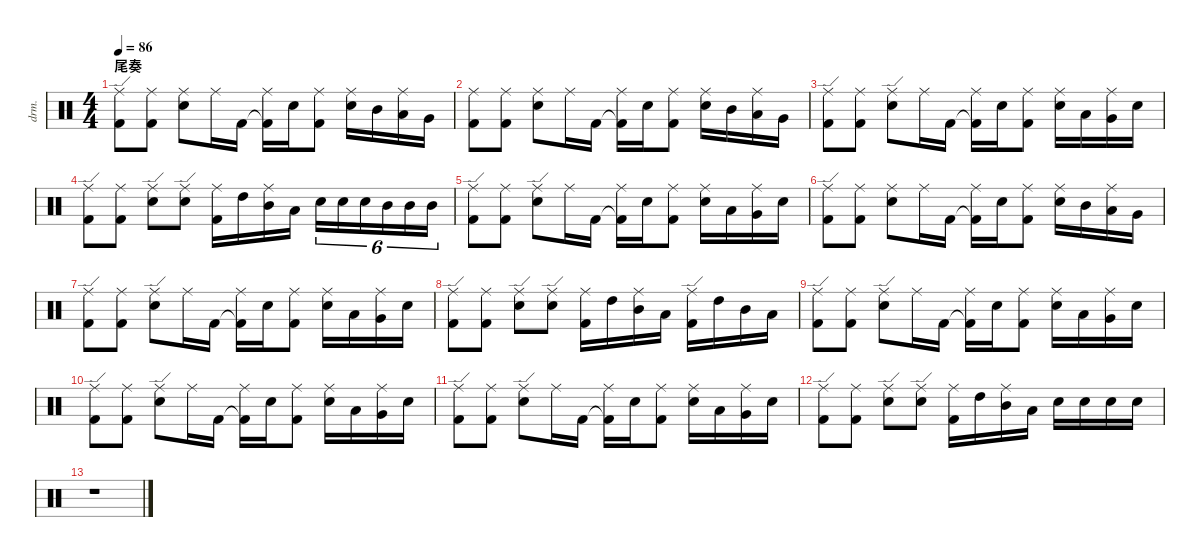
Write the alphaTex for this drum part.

\defaultSystemsLayout 4
\hideDynamics
\bracketExtendMode nobrackets
\track ("Drums" "drm.") {solo instrument percussion}
\staff {score}
\articulation defaults
\ts (4 4)
\section ("" "尾奏")
\tempo 86
\clef neutral
\ks c
("Ride (edge)" "Kick (hit) 2").8{dy ff beam Down} ("Kick (hit) 2" "Ride (middle)").8{dy mf beam Down} ("Snare (hit) 2" "Ride (middle)").8{beam Down} "Ride (middle)".16{beam Down} "Kick (hit) 2".16{beam Down} ("Kick (hit) 2"{t} "Ride (middle)").16{beam Down} "Snare (hit) 2".16{beam Down} ("Kick (hit) 2" "Ride (middle)").8{beam Down} ("Ride (middle)" "Snare (hit) 2").16{beam Down} "Mid Tom (hit)".16{beam Down} ("Ride (middle)" "Low Tom (hit)").16{beam Down} "Very Low Tom (hit)".16{beam Down} |
("Ride (middle)" "Kick (hit) 2").8{beam Down} ("Kick (hit) 2" "Ride (middle)").8{beam Down} ("Snare (hit) 2" "Ride (middle)").8{beam Down} "Ride (middle)".16{beam Down} "Kick (hit) 2".16{beam Down} ("Kick (hit) 2"{t} "Ride (middle)").16{beam Down} "Snare (hit) 2".16{beam Down} ("Kick (hit) 2" "Ride (middle)").8{beam Down} ("Ride (middle)" "Snare (hit) 2").16{beam Down} "Mid Tom (hit)".16{beam Down} ("Ride (middle)" "Low Tom (hit)").16{beam Down} "Very Low Tom (hit)".16{beam Down} |
("Ride (edge)" "Kick (hit) 2").8{dy ff beam Down} ("Kick (hit) 2" "Ride (middle)").8{dy mf beam Down} ("Snare (hit) 2" "Ride (edge)").8{dy ff beam Down} "Ride (middle)".16{dy mf beam Down} "Kick (hit) 2".16{beam Down} ("Kick (hit) 2"{t} "Ride (middle)").16{beam Down} "Snare (hit) 2".16{beam Down} ("Kick (hit) 2" "Ride (middle)").8{beam Down} ("Ride (middle)" "Snare (hit) 2").16{beam Down} "Low Tom (hit)".16{beam Down} ("Ride (middle)" "Very Low Tom (hit)").16{beam Down} "Snare (hit) 2".16{beam Down} |
("Ride (edge)" "Kick (hit) 2").8{dy ff beam Down} ("Ride (middle)" "Kick (hit) 2").8{dy mf beam Down} ("Snare (hit) 2" "Ride (edge)").8{dy ff beam Down} ("Ride (edge)" "Snare (hit) 2").8{beam Down} ("Kick (hit) 2" "Ride (middle)").16{dy mf beam Down} "High Tom (hit)".16{dy fff beam Down} ("Mid Tom (hit)" "Ride (middle)").16{dy mf beam Down} "Low Tom (hit)".16{dy fff beam Down} "Snare (hit) 2".16{tu (6 4) dy mf beam Down} "Snare (hit) 2".16{tu (6 4) beam Down} "Snare (hit) 2".16{tu (6 4) beam Down} "Mid Tom (hit)".16{tu (6 4) dy fff beam Down} "Mid Tom (hit)".16{tu (6 4) beam Down} "Mid Tom (hit)".16{tu (6 4) beam Down} |
("Ride (edge)" "Kick (hit) 2").8{dy ff beam Down} ("Kick (hit) 2" "Ride (middle)").8{dy mf beam Down} ("Snare (hit) 2" "Ride (edge)").8{dy ff beam Down} "Ride (middle)".16{dy mf beam Down} "Kick (hit) 2".16{beam Down} ("Kick (hit) 2"{t} "Ride (middle)").16{beam Down} "Snare (hit) 2".16{beam Down} ("Kick (hit) 2" "Ride (middle)").8{beam Down} ("Ride (middle)" "Snare (hit) 2").16{beam Down} "Low Tom (hit)".16{beam Down} ("Ride (middle)" "Very Low Tom (hit)").16{beam Down} "Snare (hit) 2".16{beam Down} |
("Ride (edge)" "Kick (hit) 2").8{dy ff beam Down} ("Kick (hit) 2" "Ride (middle)").8{dy mf beam Down} ("Snare (hit) 2" "Ride (middle)").8{beam Down} "Ride (middle)".16{beam Down} "Kick (hit) 2".16{beam Down} ("Kick (hit) 2"{t} "Ride (middle)").16{beam Down} "Snare (hit) 2".16{beam Down} ("Kick (hit) 2" "Ride (middle)").8{beam Down} ("Ride (middle)" "Snare (hit) 2").16{beam Down} "Mid Tom (hit)".16{beam Down} ("Ride (middle)" "Low Tom (hit)").16{beam Down} "Very Low Tom (hit)".16{beam Down} |
("Ride (edge)" "Kick (hit) 2").8{dy ff beam Down} ("Kick (hit) 2" "Ride (middle)").8{dy mf beam Down} ("Snare (hit) 2" "Ride (edge)").8{dy ff beam Down} "Ride (middle)".16{dy mf beam Down} "Kick (hit) 2".16{beam Down} ("Kick (hit) 2"{t} "Ride (middle)").16{beam Down} "Snare (hit) 2".16{beam Down} ("Kick (hit) 2" "Ride (middle)").8{beam Down} ("Ride (middle)" "Snare (hit) 2").16{beam Down} "Low Tom (hit)".16{beam Down} ("Ride (middle)" "Very Low Tom (hit)").16{beam Down} "Snare (hit) 2".16{beam Down} |
("Ride (edge)" "Kick (hit) 2").8{dy ff beam Down} ("Kick (hit) 2" "Ride (middle)").8{dy mf beam Down} ("Snare (hit) 2" "Ride (edge)").8{dy ff beam Down} ("Ride (edge)" "Snare (hit) 2").8{beam Down} ("Kick (hit) 2" "Ride (middle)").16{dy mf beam Down} "High Tom (hit)".16{dy fff beam Down} ("Mid Tom (hit)" "Ride (middle)").16{dy mf beam Down} "Low Tom (hit)".16{dy fff beam Down} ("Kick (hit) 2" "Ride (edge)").16{dy ff beam Down} "High Tom (hit)".16{dy fff beam Down} "Mid Tom (hit)".16{beam Down} "Low Tom (hit)".16{beam Down} |
("Ride (edge)" "Kick (hit) 2").8{dy ff beam Down} ("Kick (hit) 2" "Ride (middle)").8{dy mf beam Down} ("Snare (hit) 2" "Ride (edge)").8{dy ff beam Down} "Ride (middle)".16{dy mf beam Down} "Kick (hit) 2".16{beam Down} ("Kick (hit) 2"{t} "Ride (middle)").16{beam Down} "Snare (hit) 2".16{beam Down} ("Kick (hit) 2" "Ride (middle)").8{beam Down} ("Ride (middle)" "Snare (hit) 2").16{beam Down} "Low Tom (hit)".16{beam Down} ("Ride (middle)" "Very Low Tom (hit)").16{beam Down} "Snare (hit) 2".16{beam Down} |
("Ride (edge)" "Kick (hit) 2").8{dy ff beam Down} ("Kick (hit) 2" "Ride (middle)").8{dy mf beam Down} ("Snare (hit) 2" "Ride (edge)").8{dy ff beam Down} "Ride (middle)".16{dy mf beam Down} "Kick (hit) 2".16{beam Down} ("Kick (hit) 2"{t} "Ride (middle)").16{beam Down} "Snare (hit) 2".16{beam Down} ("Kick (hit) 2" "Ride (middle)").8{beam Down} ("Ride (middle)" "Snare (hit) 2").16{beam Down} "Low Tom (hit)".16{beam Down} ("Ride (middle)" "Very Low Tom (hit)").16{beam Down} "Snare (hit) 2".16{beam Down} |
("Ride (edge)" "Kick (hit) 2").8{dy ff beam Down} ("Kick (hit) 2" "Ride (middle)").8{dy mf beam Down} ("Snare (hit) 2" "Ride (edge)").8{dy ff beam Down} "Ride (middle)".16{dy mf beam Down} "Kick (hit) 2".16{beam Down} ("Kick (hit) 2"{t} "Ride (middle)").16{beam Down} "Snare (hit) 2".16{beam Down} ("Kick (hit) 2" "Ride (middle)").8{beam Down} ("Ride (middle)" "Snare (hit) 2").16{beam Down} "Low Tom (hit)".16{beam Down} ("Ride (middle)" "Very Low Tom (hit)").16{beam Down} "Snare (hit) 2".16{beam Down} |
("Ride (edge)" "Kick (hit) 2").8{dy ff beam Down} ("Ride (middle)" "Kick (hit) 2").8{dy mf beam Down} ("Snare (hit) 2" "Ride (edge)").8{dy ff beam Down} ("Ride (edge)" "Snare (hit) 2").8{beam Down} ("Kick (hit) 2" "Ride (middle)").16{dy mf beam Down} "High Tom (hit)".16{dy fff beam Down} ("Mid Tom (hit)" "Ride (middle)").16{dy mf beam Down} "Low Tom (hit)".16{dy fff beam Down} "Snare (hit) 2".16{dy mf beam Down} "Snare (hit) 2".16{beam Down} "Snare (hit) 2".16{beam Down} "Snare (hit) 2".16{beam Down} |
r.1{beam Down}
